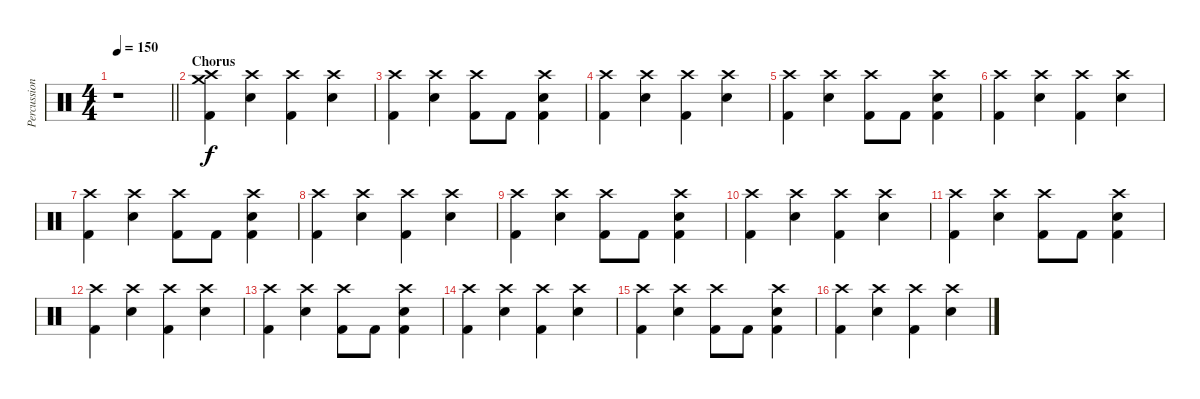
\track ("Percussion" "Percussion") {instrument percussion}
\staff {score}
\articulation defaults
\ts (4 4)
\tempo 150
\clef neutral
\barLineRight lightlight
\ks c
r.1{dy f} |
\section ("" "Chorus")
("Crash high (hit)" "Crash medium (hit)" "Kick (hit) 2").4 ("Crash high (hit)" "Snare (hit) 2").4 ("Crash high (hit)" "Kick (hit) 2").4 ("Crash high (hit)" "Snare (hit) 2").4 |
("Crash high (hit)" "Kick (hit) 2").4 ("Crash high (hit)" "Snare (hit) 2").4 ("Crash high (hit)" "Kick (hit) 2").8 "Kick (hit) 2".8 ("Crash high (hit)" "Snare (hit) 2" "Kick (hit) 2").4 |
("Crash high (hit)" "Kick (hit) 2").4 ("Crash high (hit)" "Snare (hit) 2").4 ("Crash high (hit)" "Kick (hit) 2").4 ("Crash high (hit)" "Snare (hit) 2").4 |
("Crash high (hit)" "Kick (hit) 2").4 ("Crash high (hit)" "Snare (hit) 2").4 ("Crash high (hit)" "Kick (hit) 2").8 "Kick (hit) 2".8 ("Crash high (hit)" "Snare (hit) 2" "Kick (hit) 2").4 |
("Crash high (hit)" "Kick (hit) 2").4 ("Crash high (hit)" "Snare (hit) 2").4 ("Crash high (hit)" "Kick (hit) 2").4 ("Crash high (hit)" "Snare (hit) 2").4 |
("Crash high (hit)" "Kick (hit) 2").4 ("Crash high (hit)" "Snare (hit) 2").4 ("Crash high (hit)" "Kick (hit) 2").8 "Kick (hit) 2".8 ("Crash high (hit)" "Snare (hit) 2" "Kick (hit) 2").4 |
("Crash high (hit)" "Kick (hit) 2").4 ("Crash high (hit)" "Snare (hit) 2").4 ("Crash high (hit)" "Kick (hit) 2").4 ("Crash high (hit)" "Snare (hit) 2").4 |
("Crash high (hit)" "Kick (hit) 2").4 ("Crash high (hit)" "Snare (hit) 2").4 ("Crash high (hit)" "Kick (hit) 2").8 "Kick (hit) 2".8 ("Crash high (hit)" "Snare (hit) 2" "Kick (hit) 2").4 |
("Crash high (hit)" "Kick (hit) 2").4 ("Crash high (hit)" "Snare (hit) 2").4 ("Crash high (hit)" "Kick (hit) 2").4 ("Crash high (hit)" "Snare (hit) 2").4 |
("Crash high (hit)" "Kick (hit) 2").4 ("Crash high (hit)" "Snare (hit) 2").4 ("Crash high (hit)" "Kick (hit) 2").8 "Kick (hit) 2".8 ("Crash high (hit)" "Snare (hit) 2" "Kick (hit) 2").4 |
("Crash high (hit)" "Kick (hit) 2").4 ("Crash high (hit)" "Snare (hit) 2").4 ("Crash high (hit)" "Kick (hit) 2").4 ("Crash high (hit)" "Snare (hit) 2").4 |
("Crash high (hit)" "Kick (hit) 2").4 ("Crash high (hit)" "Snare (hit) 2").4 ("Crash high (hit)" "Kick (hit) 2").8 "Kick (hit) 2".8 ("Crash high (hit)" "Snare (hit) 2" "Kick (hit) 2").4 |
("Crash high (hit)" "Kick (hit) 2").4 ("Crash high (hit)" "Snare (hit) 2").4 ("Crash high (hit)" "Kick (hit) 2").4 ("Crash high (hit)" "Snare (hit) 2").4 |
("Crash high (hit)" "Kick (hit) 2").4 ("Crash high (hit)" "Snare (hit) 2").4 ("Crash high (hit)" "Kick (hit) 2").8 "Kick (hit) 2".8 ("Crash high (hit)" "Snare (hit) 2" "Kick (hit) 2").4 |
("Crash high (hit)" "Kick (hit) 2").4 ("Crash high (hit)" "Snare (hit) 2").4 ("Crash high (hit)" "Kick (hit) 2").4 ("Crash high (hit)" "Snare (hit) 2").4
